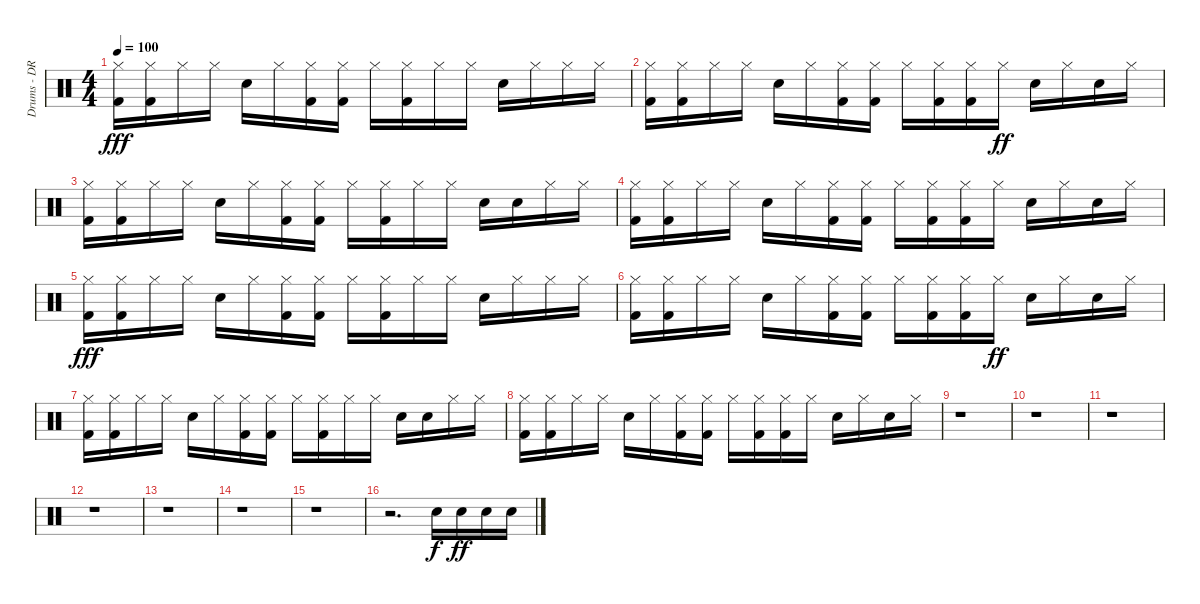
\track ("Drums - DR-660 Standard" "Drums - DR") {instrument percussion}
\staff {score}
\articulation defaults
\ts (4 4)
\tempo 100
\clef neutral
\ks c
("Kick (hit) 2" "Hi-Hat (closed)").16{dy fff} ("Kick (hit) 2" "Hi-Hat (closed)").16 "Hi-Hat (closed)".16 "Hi-Hat (closed)".16 "Snare (hit) 2".16 "Hi-Hat (closed)".16 ("Kick (hit) 2" "Hi-Hat (closed)").16 ("Kick (hit) 2" "Hi-Hat (closed)").16 "Hi-Hat (closed)".16 ("Kick (hit) 2" "Hi-Hat (closed)").16 "Hi-Hat (closed)".16 "Hi-Hat (closed)".16 "Snare (hit) 2".16 "Hi-Hat (closed)".16 "Hi-Hat (closed)".16 "Hi-Hat (closed)".16 |
("Kick (hit) 2" "Hi-Hat (closed)").16 ("Kick (hit) 2" "Hi-Hat (closed)").16 "Hi-Hat (closed)".16 "Hi-Hat (closed)".16 "Snare (hit) 2".16 "Hi-Hat (closed)".16 ("Kick (hit) 2" "Hi-Hat (closed)").16 ("Kick (hit) 2" "Hi-Hat (closed)").16 "Hi-Hat (closed)".16 ("Kick (hit) 2" "Hi-Hat (closed)").16 ("Kick (hit) 2" "Hi-Hat (closed)").16 "Hi-Hat (closed)".16{dy ff} "Snare (hit) 2".16 "Hi-Hat (closed)".16 "Snare (hit) 2".16 "Hi-Hat (closed)".16 |
("Kick (hit) 2" "Hi-Hat (closed)").16 ("Kick (hit) 2" "Hi-Hat (closed)").16 "Hi-Hat (closed)".16 "Hi-Hat (closed)".16 "Snare (hit) 2".16 "Hi-Hat (closed)".16 ("Kick (hit) 2" "Hi-Hat (closed)").16 ("Kick (hit) 2" "Hi-Hat (closed)").16 "Hi-Hat (closed)".16 ("Kick (hit) 2" "Hi-Hat (closed)").16 "Hi-Hat (closed)".16 "Hi-Hat (closed)".16 "Snare (hit) 2".16 "Snare (hit) 2".16 "Hi-Hat (closed)".16 "Hi-Hat (closed)".16 |
("Kick (hit) 2" "Hi-Hat (closed)").16 ("Kick (hit) 2" "Hi-Hat (closed)").16 "Hi-Hat (closed)".16 "Hi-Hat (closed)".16 "Snare (hit) 2".16 "Hi-Hat (closed)".16 ("Kick (hit) 2" "Hi-Hat (closed)").16 ("Kick (hit) 2" "Hi-Hat (closed)").16 "Hi-Hat (closed)".16 ("Kick (hit) 2" "Hi-Hat (closed)").16 ("Kick (hit) 2" "Hi-Hat (closed)").16 "Hi-Hat (closed)".16 "Snare (hit) 2".16 "Hi-Hat (closed)".16 "Snare (hit) 2".16 "Hi-Hat (closed)".16 |
("Kick (hit) 2" "Hi-Hat (closed)").16{dy fff} ("Kick (hit) 2" "Hi-Hat (closed)").16 "Hi-Hat (closed)".16 "Hi-Hat (closed)".16 "Snare (hit) 2".16 "Hi-Hat (closed)".16 ("Kick (hit) 2" "Hi-Hat (closed)").16 ("Kick (hit) 2" "Hi-Hat (closed)").16 "Hi-Hat (closed)".16 ("Kick (hit) 2" "Hi-Hat (closed)").16 "Hi-Hat (closed)".16 "Hi-Hat (closed)".16 "Snare (hit) 2".16 "Hi-Hat (closed)".16 "Hi-Hat (closed)".16 "Hi-Hat (closed)".16 |
("Kick (hit) 2" "Hi-Hat (closed)").16 ("Kick (hit) 2" "Hi-Hat (closed)").16 "Hi-Hat (closed)".16 "Hi-Hat (closed)".16 "Snare (hit) 2".16 "Hi-Hat (closed)".16 ("Kick (hit) 2" "Hi-Hat (closed)").16 ("Kick (hit) 2" "Hi-Hat (closed)").16 "Hi-Hat (closed)".16 ("Kick (hit) 2" "Hi-Hat (closed)").16 ("Kick (hit) 2" "Hi-Hat (closed)").16 "Hi-Hat (closed)".16{dy ff} "Snare (hit) 2".16 "Hi-Hat (closed)".16 "Snare (hit) 2".16 "Hi-Hat (closed)".16 |
("Kick (hit) 2" "Hi-Hat (closed)").16 ("Kick (hit) 2" "Hi-Hat (closed)").16 "Hi-Hat (closed)".16 "Hi-Hat (closed)".16 "Snare (hit) 2".16 "Hi-Hat (closed)".16 ("Kick (hit) 2" "Hi-Hat (closed)").16 ("Kick (hit) 2" "Hi-Hat (closed)").16 "Hi-Hat (closed)".16 ("Kick (hit) 2" "Hi-Hat (closed)").16 "Hi-Hat (closed)".16 "Hi-Hat (closed)".16 "Snare (hit) 2".16 "Snare (hit) 2".16 "Hi-Hat (closed)".16 "Hi-Hat (closed)".16 |
("Kick (hit) 2" "Hi-Hat (closed)").16 ("Kick (hit) 2" "Hi-Hat (closed)").16 "Hi-Hat (closed)".16 "Hi-Hat (closed)".16 "Snare (hit) 2".16 "Hi-Hat (closed)".16 ("Kick (hit) 2" "Hi-Hat (closed)").16 ("Kick (hit) 2" "Hi-Hat (closed)").16 "Hi-Hat (closed)".16 ("Kick (hit) 2" "Hi-Hat (closed)").16 ("Kick (hit) 2" "Hi-Hat (closed)").16 "Hi-Hat (closed)".16 "Snare (hit) 2".16 "Hi-Hat (closed)".16 "Snare (hit) 2".16 "Hi-Hat (closed)".16 |
r.1 |
r.1 |
r.1 |
r.1 |
r.1 |
r.1 |
r.1 |
r.2{d} "Snare (hit) 2".16{dy f} "Snare (hit) 2".16{dy ff} "Snare (hit) 2".16 "Snare (hit) 2".16
